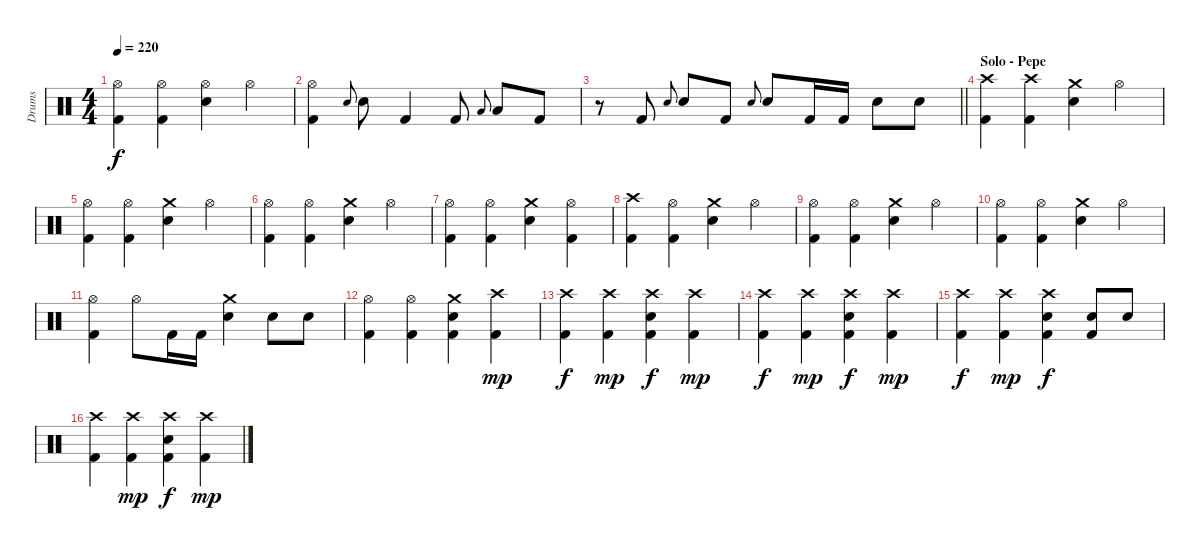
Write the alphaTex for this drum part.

\track ("Drums" "Drums") {instrument percussion}
\staff {score}
\articulation defaults
\ts (4 4)
\tempo 220
\clef neutral
\ks c
("Kick (hit) 2" "Hi-Hat (open)").4{dy f} ("Hi-Hat (open)" "Kick (hit) 2").4 ("Hi-Hat (open)" "Electric Snare (hit)").4 "Hi-Hat (open)".4 |
("Kick (hit) 2" "Hi-Hat (open)").4 "Electric Snare (hit)".8{gr onbeat} "Electric Snare (hit)".8 "Kick (hit) 2".4 "Kick (hit) 2".8 "Low Tom (hit)".8{gr onbeat} "Low Tom (hit)".8 "Kick (hit) 2".8 |
\barLineRight lightlight
r.8 "Kick (hit) 2".8 "Electric Snare (hit)".8{gr onbeat} "Electric Snare (hit)".8 "Kick (hit) 2".8 "Electric Snare (hit)".8{gr onbeat} "Electric Snare (hit)".8 "Kick (hit) 2".16 "Kick (hit) 2".16 "Electric Snare (hit)".8 "Electric Snare (hit)".8 |
\section ("" "Solo - Pepe")
("Crash high (hit)" "Kick (hit) 2").4 ("Crash high (hit)" "Kick (hit) 2").4 ("Crash medium (hit)" "Electric Snare (hit)").4 "Hi-Hat (open)".4 |
("Kick (hit) 2" "Hi-Hat (open)").4 ("Kick (hit) 2" "Hi-Hat (open)").4 ("Electric Snare (hit)" "Crash medium (hit)").4 "Hi-Hat (open)".4 |
("Kick (hit) 2" "Hi-Hat (open)").4 ("Kick (hit) 2" "Hi-Hat (open)").4 ("Electric Snare (hit)" "Crash medium (hit)").4 "Hi-Hat (open)".4 |
("Kick (hit) 2" "Hi-Hat (open)").4 ("Kick (hit) 2" "Hi-Hat (open)").4 ("Electric Snare (hit)" "Crash medium (hit)").4 ("Hi-Hat (open)" "Kick (hit) 2").4 |
("Crash high (hit)" "Kick (hit) 2").4 ("Hi-Hat (open)" "Kick (hit) 2").4 ("Crash medium (hit)" "Electric Snare (hit)").4 "Hi-Hat (open)".4 |
("Kick (hit) 2" "Hi-Hat (open)").4 ("Kick (hit) 2" "Hi-Hat (open)").4 ("Electric Snare (hit)" "Crash medium (hit)").4 "Hi-Hat (open)".4 |
("Kick (hit) 2" "Hi-Hat (open)").4 ("Kick (hit) 2" "Hi-Hat (open)").4 ("Electric Snare (hit)" "Crash medium (hit)").4 "Hi-Hat (open)".4 |
("Kick (hit) 2" "Hi-Hat (open)").4 "Hi-Hat (open)".8 "Kick (hit) 2".16 "Kick (hit) 2".16 ("Electric Snare (hit)" "Crash medium (hit)").4 "Electric Snare (hit)".8 "Electric Snare (hit)".8 |
("Kick (hit) 2" "Hi-Hat (open)").4 ("Kick (hit) 2" "Hi-Hat (open)").4 ("Electric Snare (hit)" "Crash medium (hit)" "Kick (hit) 2").4 ("Crash high (hit)" "Kick (hit) 2").4{dy mp} |
("Crash high (hit)" "Kick (hit) 2").4{dy f} ("Crash high (hit)" "Kick (hit) 2").4{dy mp} ("Crash high (hit)" "Electric Snare (hit)" "Kick (hit) 2").4{dy f} ("Crash high (hit)" "Kick (hit) 2").4{dy mp} |
("Crash high (hit)" "Kick (hit) 2").4{dy f} ("Crash high (hit)" "Kick (hit) 2").4{dy mp} ("Crash high (hit)" "Electric Snare (hit)" "Kick (hit) 2").4{dy f} ("Crash high (hit)" "Kick (hit) 2").4{dy mp} |
("Crash high (hit)" "Kick (hit) 2").4{dy f} ("Crash high (hit)" "Kick (hit) 2").4{dy mp} ("Crash high (hit)" "Electric Snare (hit)" "Kick (hit) 2").4{dy f} ("Electric Snare (hit)" "Kick (hit) 2").8 "Electric Snare (hit)".8 |
("Crash high (hit)" "Kick (hit) 2").4 ("Crash high (hit)" "Kick (hit) 2").4{dy mp} ("Crash high (hit)" "Electric Snare (hit)" "Kick (hit) 2").4{dy f} ("Crash high (hit)" "Kick (hit) 2").4{dy mp}
